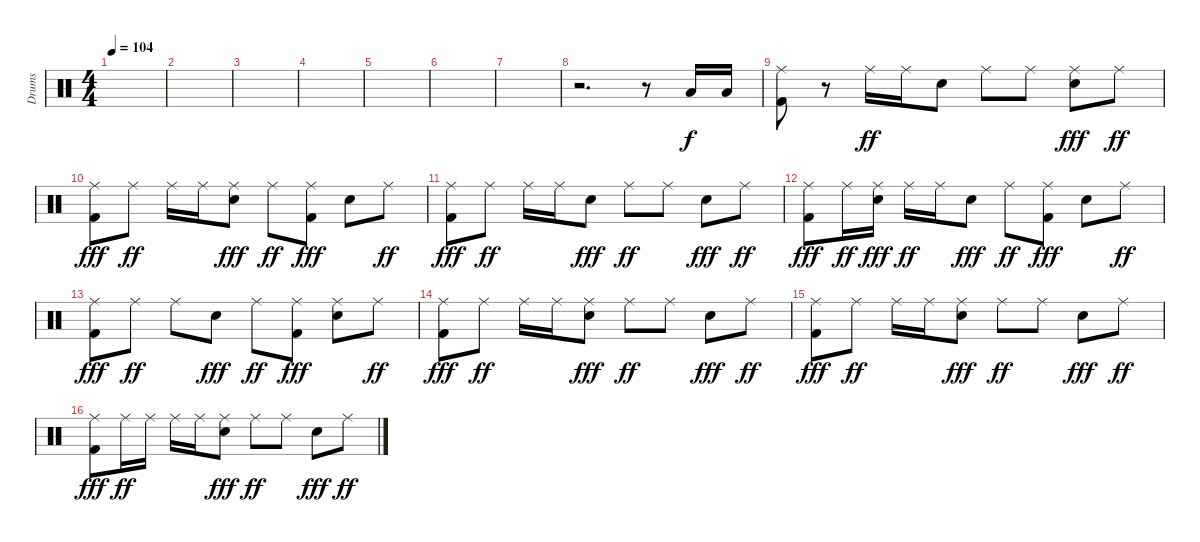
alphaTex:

\track ("Drums" "Drums") {instrument percussion}
\staff {score}
\articulation defaults
\ts (4 4)
\tempo 104
\clef neutral
\ks c
|
|
|
|
|
|
|
r.2{d} r.8 "Low Tom (hit)".16 "Low Tom (hit)".16 |
("Ride (middle)" "Kick (hit) 2").8 r.8 "Ride (middle)".16{dy ff} "Ride (middle)".16 "Electric Snare (hit)".8 "Ride (middle)".8 "Ride (middle)".8 ("Ride (middle)" "Electric Snare (hit)").8{dy fff} "Ride (middle)".8{dy ff} |
("Ride (middle)" "Kick (hit) 2").8{dy fff} "Ride (middle)".8{dy ff} "Ride (middle)".16 "Ride (middle)".16 ("Ride (middle)" "Electric Snare (hit)").8{dy fff} "Ride (middle)".8{dy ff} ("Ride (middle)" "Kick (hit) 2").8{dy fff} "Electric Snare (hit)".8 "Ride (middle)".8{dy ff} |
("Ride (middle)" "Kick (hit) 2").8{dy fff} "Ride (middle)".8{dy ff} "Ride (middle)".16 "Ride (middle)".16 "Electric Snare (hit)".8{dy fff} "Ride (middle)".8{dy ff} "Ride (middle)".8 "Electric Snare (hit)".8{dy fff} "Ride (middle)".8{dy ff} |
("Ride (middle)" "Kick (hit) 2").8{dy fff} "Ride (middle)".16{dy ff} ("Ride (middle)" "Electric Snare (hit)").16{dy fff} "Ride (middle)".16{dy ff} "Ride (middle)".16 "Electric Snare (hit)".8{dy fff} "Ride (middle)".8{dy ff} ("Ride (middle)" "Kick (hit) 2").8{dy fff} "Electric Snare (hit)".8 "Ride (middle)".8{dy ff} |
("Ride (middle)" "Kick (hit) 2").8{dy fff} "Ride (middle)".8{dy ff} "Ride (middle)".8 "Electric Snare (hit)".8{dy fff} "Ride (middle)".8{dy ff} ("Ride (middle)" "Kick (hit) 2").8{dy fff} ("Ride (middle)" "Electric Snare (hit)").8 "Ride (middle)".8{dy ff} |
("Ride (middle)" "Kick (hit) 2").8{dy fff} "Ride (middle)".8{dy ff} "Ride (middle)".16 "Ride (middle)".16 ("Ride (middle)" "Electric Snare (hit)").8{dy fff} "Ride (middle)".8{dy ff} "Ride (middle)".8 "Electric Snare (hit)".8{dy fff} "Ride (middle)".8{dy ff} |
("Ride (middle)" "Kick (hit) 2").8{dy fff} "Ride (middle)".8{dy ff} "Ride (middle)".16 "Ride (middle)".16 ("Ride (middle)" "Electric Snare (hit)").8{dy fff} "Ride (middle)".8{dy ff} "Ride (middle)".8 "Electric Snare (hit)".8{dy fff} "Ride (middle)".8{dy ff} |
("Ride (middle)" "Kick (hit) 2").8{dy fff} "Ride (middle)".16{dy ff} "Ride (middle)".16 "Ride (middle)".16 "Ride (middle)".16 ("Ride (middle)" "Electric Snare (hit)").8{dy fff} "Ride (middle)".8{dy ff} "Ride (middle)".8 "Electric Snare (hit)".8{dy fff} "Ride (middle)".8{dy ff}
